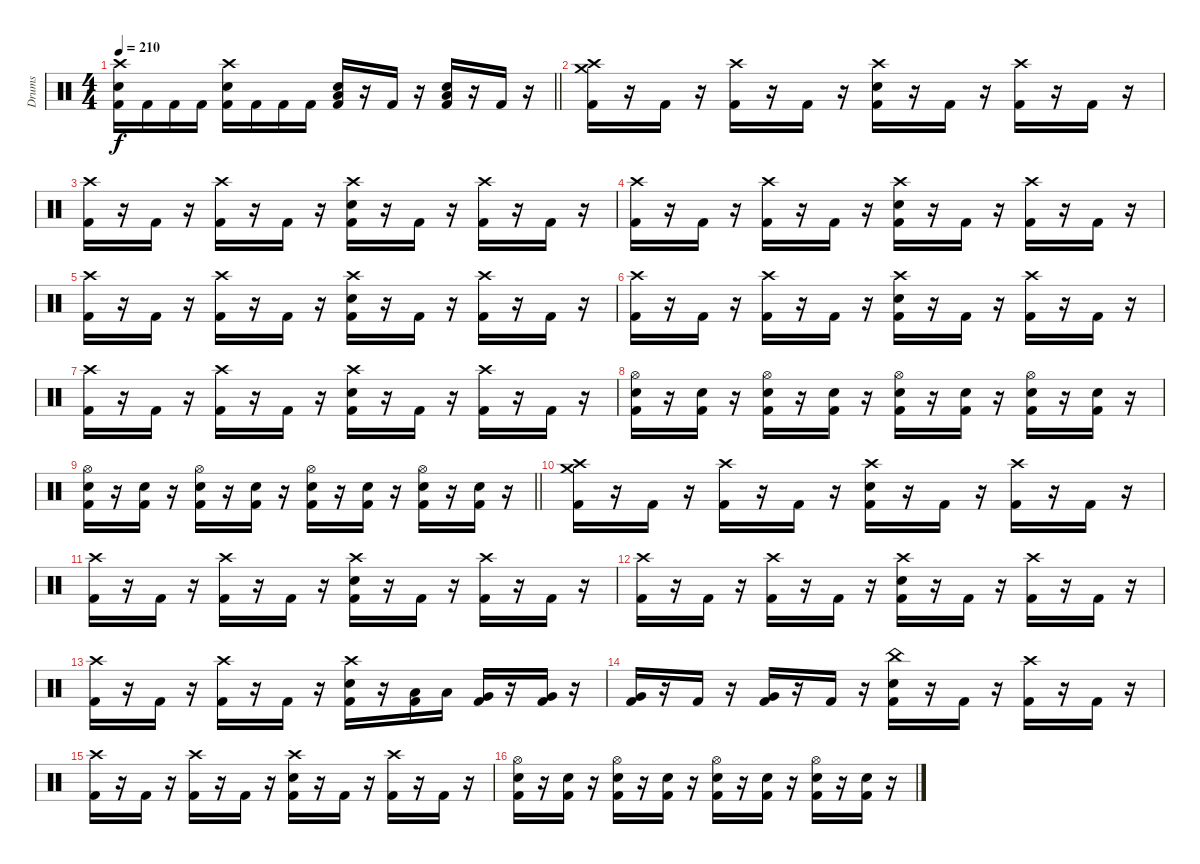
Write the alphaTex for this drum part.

\track ("Drums" "Drums") {instrument percussion}
\staff {score}
\articulation defaults
\ts (4 4)
\tempo 210
\clef neutral
\barLineRight lightlight
\ks c
("Crash high (hit)" "Electric Snare (hit)" "Kick (hit) 2").16{dy f} "Kick (hit) 2".16 "Kick (hit) 2".16 "Kick (hit) 2".16 ("Crash high (hit)" "Electric Snare (hit)" "Kick (hit) 2").16 "Kick (hit) 2".16 "Kick (hit) 2".16 "Kick (hit) 2".16 ("Low Floor Tom (hit)" "Electric Snare (hit)" "Kick (hit) 2").16 r.16 "Kick (hit) 2".16 r.16 ("Low Floor Tom (hit)" "Electric Snare (hit)" "Kick (hit) 2").16 r.16 "Kick (hit) 2".16 r.16 |
("Crash high (hit)" "Crash medium (hit)" "Kick (hit) 2").16 r.16 "Kick (hit) 2".16 r.16 ("Crash high (hit)" "Kick (hit) 2").16 r.16 "Kick (hit) 2".16 r.16 ("Crash high (hit)" "Electric Snare (hit)" "Kick (hit) 2").16 r.16 "Kick (hit) 2".16 r.16 ("Crash high (hit)" "Kick (hit) 2").16 r.16 "Kick (hit) 2".16 r.16 |
("Crash high (hit)" "Kick (hit) 2").16 r.16 "Kick (hit) 2".16 r.16 ("Crash high (hit)" "Kick (hit) 2").16 r.16 "Kick (hit) 2".16 r.16 ("Crash high (hit)" "Electric Snare (hit)" "Kick (hit) 2").16 r.16 "Kick (hit) 2".16 r.16 ("Crash high (hit)" "Kick (hit) 2").16 r.16 "Kick (hit) 2".16 r.16 |
("Crash high (hit)" "Kick (hit) 2").16 r.16 "Kick (hit) 2".16 r.16 ("Crash high (hit)" "Kick (hit) 2").16 r.16 "Kick (hit) 2".16 r.16 ("Crash high (hit)" "Electric Snare (hit)" "Kick (hit) 2").16 r.16 "Kick (hit) 2".16 r.16 ("Crash high (hit)" "Kick (hit) 2").16 r.16 "Kick (hit) 2".16 r.16 |
("Crash high (hit)" "Kick (hit) 2").16 r.16 "Kick (hit) 2".16 r.16 ("Crash high (hit)" "Kick (hit) 2").16 r.16 "Kick (hit) 2".16 r.16 ("Crash high (hit)" "Electric Snare (hit)" "Kick (hit) 2").16 r.16 "Kick (hit) 2".16 r.16 ("Crash high (hit)" "Kick (hit) 2").16 r.16 "Kick (hit) 2".16 r.16 |
("Crash high (hit)" "Kick (hit) 2").16 r.16 "Kick (hit) 2".16 r.16 ("Crash high (hit)" "Kick (hit) 2").16 r.16 "Kick (hit) 2".16 r.16 ("Crash high (hit)" "Electric Snare (hit)" "Kick (hit) 2").16 r.16 "Kick (hit) 2".16 r.16 ("Crash high (hit)" "Kick (hit) 2").16 r.16 "Kick (hit) 2".16 r.16 |
("Crash high (hit)" "Kick (hit) 2").16 r.16 "Kick (hit) 2".16 r.16 ("Crash high (hit)" "Kick (hit) 2").16 r.16 "Kick (hit) 2".16 r.16 ("Crash high (hit)" "Electric Snare (hit)" "Kick (hit) 2").16 r.16 "Kick (hit) 2".16 r.16 ("Crash high (hit)" "Kick (hit) 2").16 r.16 "Kick (hit) 2".16 r.16 |
("Hi-Hat (open)" "Electric Snare (hit)" "Kick (hit) 2").16 r.16 ("Electric Snare (hit)" "Kick (hit) 2").16 r.16 ("Hi-Hat (open)" "Electric Snare (hit)" "Kick (hit) 2").16 r.16 ("Electric Snare (hit)" "Kick (hit) 2").16 r.16 ("Hi-Hat (open)" "Electric Snare (hit)" "Kick (hit) 2").16 r.16 ("Electric Snare (hit)" "Kick (hit) 2").16 r.16 ("Hi-Hat (open)" "Electric Snare (hit)" "Kick (hit) 2").16 r.16 ("Electric Snare (hit)" "Kick (hit) 2").16 r.16 |
\barLineRight lightlight
("Hi-Hat (open)" "Electric Snare (hit)" "Kick (hit) 2").16 r.16 ("Electric Snare (hit)" "Kick (hit) 2").16 r.16 ("Hi-Hat (open)" "Electric Snare (hit)" "Kick (hit) 2").16 r.16 ("Electric Snare (hit)" "Kick (hit) 2").16 r.16 ("Hi-Hat (open)" "Electric Snare (hit)" "Kick (hit) 2").16 r.16 ("Electric Snare (hit)" "Kick (hit) 2").16 r.16 ("Hi-Hat (open)" "Electric Snare (hit)" "Kick (hit) 2").16 r.16 ("Electric Snare (hit)" "Kick (hit) 2").16 r.16 |
("Crash high (hit)" "Crash medium (hit)" "Kick (hit) 2").16 r.16 "Kick (hit) 2".16 r.16 ("Crash high (hit)" "Kick (hit) 2").16 r.16 "Kick (hit) 2".16 r.16 ("Crash high (hit)" "Electric Snare (hit)" "Kick (hit) 2").16 r.16 "Kick (hit) 2".16 r.16 ("Crash high (hit)" "Kick (hit) 2").16 r.16 "Kick (hit) 2".16 r.16 |
("Crash high (hit)" "Kick (hit) 2").16 r.16 "Kick (hit) 2".16 r.16 ("Crash high (hit)" "Kick (hit) 2").16 r.16 "Kick (hit) 2".16 r.16 ("Crash high (hit)" "Electric Snare (hit)" "Kick (hit) 2").16 r.16 "Kick (hit) 2".16 r.16 ("Crash high (hit)" "Kick (hit) 2").16 r.16 "Kick (hit) 2".16 r.16 |
("Crash high (hit)" "Kick (hit) 2").16 r.16 "Kick (hit) 2".16 r.16 ("Crash high (hit)" "Kick (hit) 2").16 r.16 "Kick (hit) 2".16 r.16 ("Crash high (hit)" "Electric Snare (hit)" "Kick (hit) 2").16 r.16 "Kick (hit) 2".16 r.16 ("Crash high (hit)" "Kick (hit) 2").16 r.16 "Kick (hit) 2".16 r.16 |
("Crash high (hit)" "Kick (hit) 2").16 r.16 "Kick (hit) 2".16 r.16 ("Crash high (hit)" "Kick (hit) 2").16 r.16 "Kick (hit) 2".16 r.16 ("Crash high (hit)" "Electric Snare (hit)" "Kick (hit) 2").16 r.16 ("Low Tom (hit)" "Kick (hit) 2").16 "Low Tom (hit)".16 ("Very Low Tom (hit)" "Kick (hit) 2").16 r.16 ("Very Low Tom (hit)" "Kick (hit) 2").16 r.16 |
("Very Low Tom (hit)" "Kick (hit) 2").16 r.16 "Kick (hit) 2".16 r.16 ("Very Low Tom (hit)" "Kick (hit) 2").16 r.16 "Kick (hit) 2".16 r.16 ("China (hit)" "Electric Snare (hit)" "Kick (hit) 2").16 r.16 "Kick (hit) 2".16 r.16 ("Crash high (hit)" "Kick (hit) 2").16 r.16 "Kick (hit) 2".16 r.16 |
("Crash high (hit)" "Kick (hit) 2").16 r.16 "Kick (hit) 2".16 r.16 ("Crash high (hit)" "Kick (hit) 2").16 r.16 "Kick (hit) 2".16 r.16 ("Crash high (hit)" "Electric Snare (hit)" "Kick (hit) 2").16 r.16 "Kick (hit) 2".16 r.16 ("Crash high (hit)" "Kick (hit) 2").16 r.16 "Kick (hit) 2".16 r.16 |
("Hi-Hat (open)" "Electric Snare (hit)" "Kick (hit) 2").16 r.16 ("Electric Snare (hit)" "Kick (hit) 2").16 r.16 ("Hi-Hat (open)" "Electric Snare (hit)" "Kick (hit) 2").16 r.16 ("Electric Snare (hit)" "Kick (hit) 2").16 r.16 ("Hi-Hat (open)" "Electric Snare (hit)" "Kick (hit) 2").16 r.16 ("Electric Snare (hit)" "Kick (hit) 2").16 r.16 ("Hi-Hat (open)" "Electric Snare (hit)" "Kick (hit) 2").16 r.16 ("Electric Snare (hit)" "Kick (hit) 2").16 r.16
